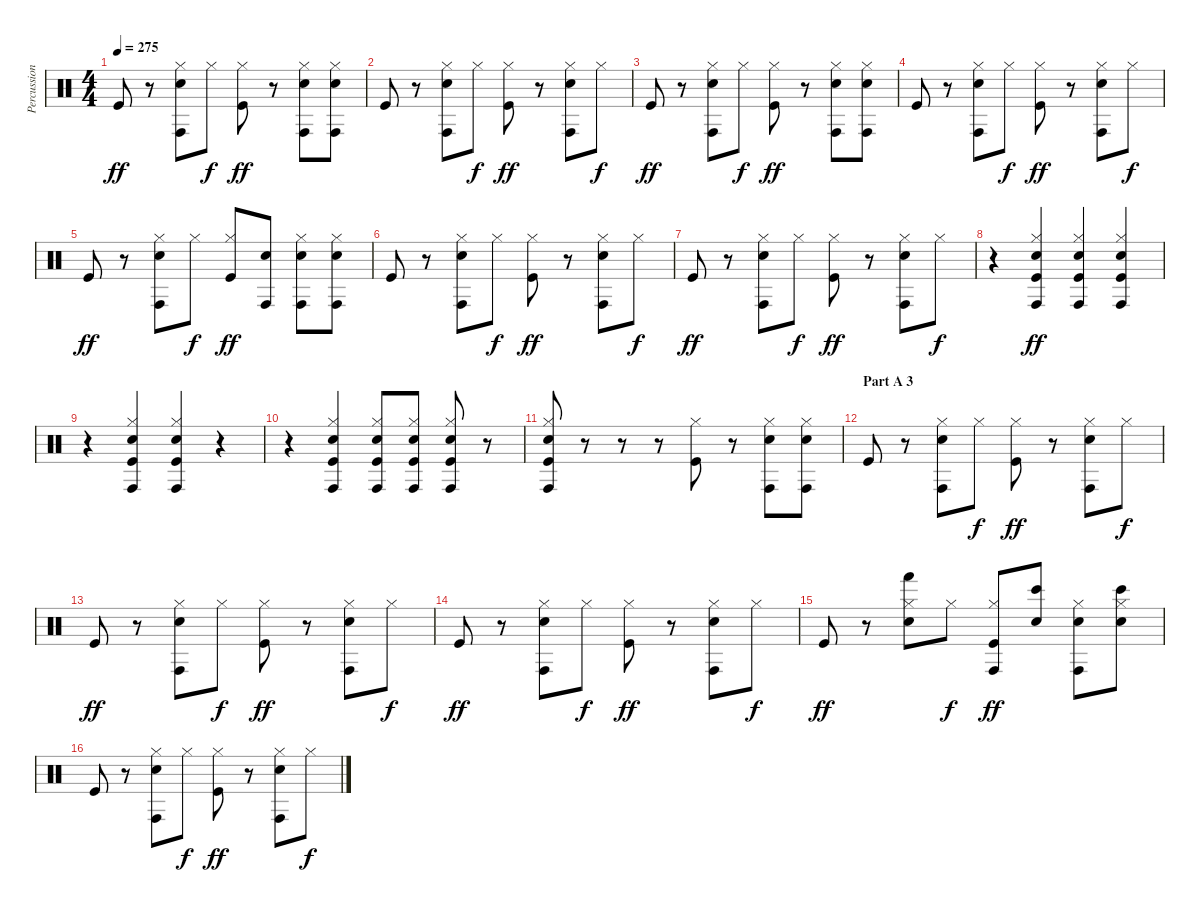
\track ("Percussion" "Percussion") {instrument percussion}
\staff {score}
\articulation defaults
\ts (4 4)
\tempo 275
\clef neutral
\ks c "Kick (hit)".8{dy ff}
r.8 ("Hi-Hat (closed)" "Conga high (hit)" "Electric Snare (hit)").8 "Hi-Hat (closed)".8{dy f} ("Hi-Hat (closed)" "Kick (hit)").8{dy ff} r.8 ("Hi-Hat (closed)" "Conga high (hit)" "Electric Snare (hit)").8 ("Hi-Hat (closed)" "Conga high (hit)" "Electric Snare (hit)").8 |
"Kick (hit)".8 r.8 ("Hi-Hat (closed)" "Conga high (hit)" "Electric Snare (hit)").8 "Hi-Hat (closed)".8{dy f} ("Hi-Hat (closed)" "Kick (hit)").8{dy ff} r.8 ("Hi-Hat (closed)" "Conga high (hit)" "Electric Snare (hit)").8 "Hi-Hat (closed)".8{dy f} |
"Kick (hit)".8{dy ff} r.8 ("Hi-Hat (closed)" "Conga high (hit)" "Electric Snare (hit)").8 "Hi-Hat (closed)".8{dy f} ("Hi-Hat (closed)" "Kick (hit)").8{dy ff} r.8 ("Hi-Hat (closed)" "Conga high (hit)" "Electric Snare (hit)").8 ("Hi-Hat (closed)" "Conga high (hit)" "Electric Snare (hit)").8 |
"Kick (hit)".8 r.8 ("Hi-Hat (closed)" "Conga high (hit)" "Electric Snare (hit)").8 "Hi-Hat (closed)".8{dy f} ("Hi-Hat (closed)" "Kick (hit)").8{dy ff} r.8 ("Hi-Hat (closed)" "Conga high (hit)" "Electric Snare (hit)").8 "Hi-Hat (closed)".8{dy f} |
"Kick (hit)".8{dy ff} r.8 ("Hi-Hat (closed)" "Conga high (hit)" "Electric Snare (hit)").8 "Hi-Hat (closed)".8{dy f} ("Hi-Hat (closed)" "Kick (hit)").8{dy ff} ("Conga high (hit)" "Electric Snare (hit)").8 ("Hi-Hat (closed)" "Conga high (hit)" "Electric Snare (hit)").8 ("Hi-Hat (closed)" "Conga high (hit)" "Electric Snare (hit)").8 |
"Kick (hit)".8 r.8 ("Hi-Hat (closed)" "Conga high (hit)" "Electric Snare (hit)").8 "Hi-Hat (closed)".8{dy f} ("Hi-Hat (closed)" "Kick (hit)").8{dy ff} r.8 ("Hi-Hat (closed)" "Conga high (hit)" "Electric Snare (hit)").8 "Hi-Hat (closed)".8{dy f} |
"Kick (hit)".8{dy ff} r.8 ("Hi-Hat (closed)" "Conga high (hit)" "Electric Snare (hit)").8 "Hi-Hat (closed)".8{dy f} ("Hi-Hat (closed)" "Kick (hit)").8{dy ff} r.8 ("Hi-Hat (closed)" "Conga high (hit)" "Electric Snare (hit)").8 "Hi-Hat (closed)".8{dy f} |
r.4 ("Hi-Hat (closed)" "Conga high (hit)" "Electric Snare (hit)" "Kick (hit)").4{dy ff} ("Hi-Hat (closed)" "Conga high (hit)" "Electric Snare (hit)" "Kick (hit)").4 ("Hi-Hat (closed)" "Conga high (hit)" "Electric Snare (hit)" "Kick (hit)").4 |
r.4 ("Hi-Hat (closed)" "Conga high (hit)" "Electric Snare (hit)" "Kick (hit)").4 ("Hi-Hat (closed)" "Conga high (hit)" "Electric Snare (hit)" "Kick (hit)").4 r.4 |
r.4 ("Hi-Hat (closed)" "Conga high (hit)" "Electric Snare (hit)" "Kick (hit)").4 ("Hi-Hat (closed)" "Conga high (hit)" "Electric Snare (hit)" "Kick (hit)").8 ("Hi-Hat (closed)" "Conga high (hit)" "Electric Snare (hit)" "Kick (hit)").8 ("Hi-Hat (closed)" "Conga high (hit)" "Electric Snare (hit)" "Kick (hit)").8 r.8 |
("Hi-Hat (closed)" "Conga high (hit)" "Electric Snare (hit)" "Kick (hit)").8 r.8 r.8 r.8 ("Hi-Hat (closed)" "Kick (hit)").8 r.8 ("Hi-Hat (closed)" "Conga high (hit)" "Electric Snare (hit)").8 ("Hi-Hat (closed)" "Conga high (hit)" "Electric Snare (hit)").8 |
\section ("" "Part A 3")
"Kick (hit)".8 r.8 ("Hi-Hat (closed)" "Conga high (hit)" "Electric Snare (hit)").8 "Hi-Hat (closed)".8{dy f} ("Hi-Hat (closed)" "Kick (hit)").8{dy ff} r.8 ("Hi-Hat (closed)" "Conga high (hit)" "Electric Snare (hit)").8 "Hi-Hat (closed)".8{dy f} |
"Kick (hit)".8{dy ff} r.8 ("Hi-Hat (closed)" "Conga high (hit)" "Electric Snare (hit)").8 "Hi-Hat (closed)".8{dy f} ("Hi-Hat (closed)" "Kick (hit)").8{dy ff} r.8 ("Hi-Hat (closed)" "Conga high (hit)" "Electric Snare (hit)").8 "Hi-Hat (closed)".8{dy f} |
"Kick (hit)".8{dy ff} r.8 ("Hi-Hat (closed)" "Conga high (hit)" "Electric Snare (hit)").8 "Hi-Hat (closed)".8{dy f} ("Hi-Hat (closed)" "Kick (hit)").8{dy ff} r.8 ("Hi-Hat (closed)" "Conga high (hit)" "Electric Snare (hit)").8 "Hi-Hat (closed)".8{dy f} |
"Kick (hit)".8{dy ff} r.8 ("Hi-Hat (closed)" "Hand (hit)" "Electric Snare (hit)").8 "Hi-Hat (closed)".8{dy f} ("Hi-Hat (closed)" "Conga high (hit)" "Kick (hit)").8{dy ff} ("Bongo High (hit)" "Electric Snare (hit)").8 ("Hi-Hat (closed)" "Conga high (hit)" "Electric Snare (hit)").8 ("Hi-Hat (closed)" "Bongo High (hit)" "Electric Snare (hit)").8 |
"Kick (hit)".8 r.8 ("Hi-Hat (closed)" "Conga high (hit)" "Electric Snare (hit)").8 "Hi-Hat (closed)".8{dy f} ("Hi-Hat (closed)" "Kick (hit)").8{dy ff} r.8 ("Hi-Hat (closed)" "Conga high (hit)" "Electric Snare (hit)").8 "Hi-Hat (closed)".8{dy f}
